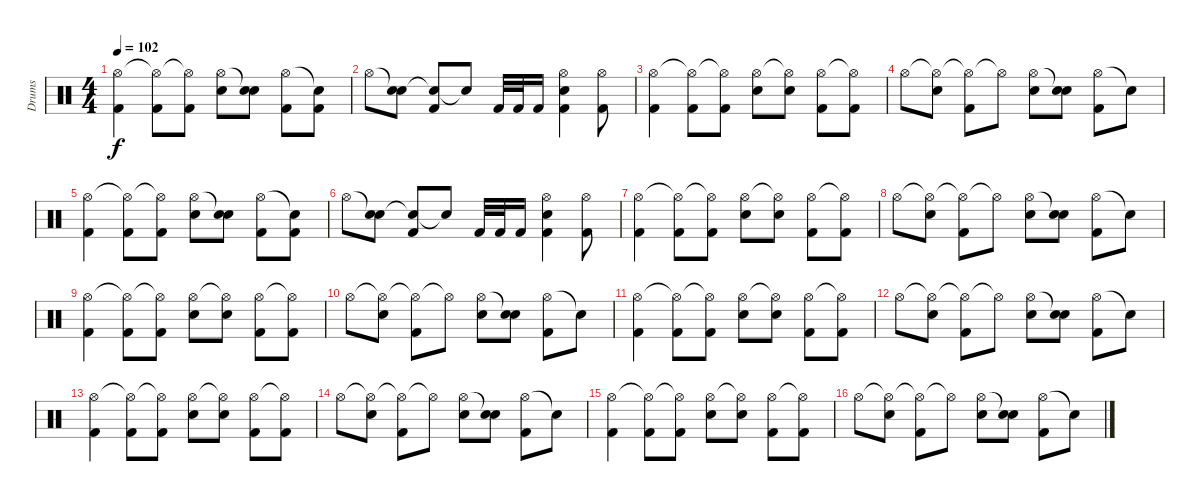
\track ("Drums" "Drums") {instrument percussion}
\staff {score}
\articulation defaults
\ts (4 4)
\tempo 102
\clef neutral
\ks c
("Hi-Hat (open)" "Kick (hit) 2").4{dy f} ("Hi-Hat (open)"{t} "Kick (hit) 2").8 ("Hi-Hat (open)"{t} "Kick (hit) 2").8 ("Hi-Hat (open)" "Snare (hit) 2").8 ("Snare (hit)"{t} "Snare (hit) 2").8 ("Hi-Hat (open)" "Kick (hit) 2").8 ("Snare (hit)"{t} "Kick (hit) 2").8 |
"Hi-Hat (open)".8 ("Snare (hit)"{t} "Snare (hit) 2").8 ("Snare (hit)"{t} "Kick (hit) 2").8 "Snare (hit)"{t}.8 "Kick (hit) 2".32 "Kick (hit) 2".32 "Kick (hit) 2".16 ("Hi-Hat (open)" "Snare (hit) 2" "Kick (hit) 2").4 ("Hi-Hat (open)" "Kick (hit) 2").8 |
("Hi-Hat (open)" "Kick (hit) 2").4 ("Hi-Hat (open)"{t} "Kick (hit) 2").8 ("Hi-Hat (open)"{t} "Kick (hit) 2").8 ("Hi-Hat (open)" "Snare (hit) 2").8 ("Hi-Hat (open)"{t} "Snare (hit) 2").8 ("Hi-Hat (open)" "Kick (hit) 2").8 ("Hi-Hat (open)"{t} "Kick (hit) 2").8 |
"Hi-Hat (open)".8 ("Hi-Hat (open)"{t} "Snare (hit) 2").8 ("Hi-Hat (open)"{t} "Kick (hit) 2").8 "Hi-Hat (open)"{t}.8 ("Hi-Hat (open)" "Snare (hit) 2").8 ("Snare (hit)"{t} "Snare (hit) 2").8 ("Hi-Hat (open)" "Kick (hit) 2").8 "Snare (hit)"{t}.8 |
("Hi-Hat (open)" "Kick (hit) 2").4 ("Hi-Hat (open)"{t} "Kick (hit) 2").8 ("Hi-Hat (open)"{t} "Kick (hit) 2").8 ("Hi-Hat (open)" "Snare (hit) 2").8 ("Snare (hit)"{t} "Snare (hit) 2").8 ("Hi-Hat (open)" "Kick (hit) 2").8 ("Snare (hit)"{t} "Kick (hit) 2").8 |
"Hi-Hat (open)".8 ("Snare (hit)"{t} "Snare (hit) 2").8 ("Snare (hit)"{t} "Kick (hit) 2").8 "Snare (hit)"{t}.8 "Kick (hit) 2".32 "Kick (hit) 2".32 "Kick (hit) 2".16 ("Hi-Hat (open)" "Snare (hit) 2" "Kick (hit) 2").4 ("Hi-Hat (open)" "Kick (hit) 2").8 |
("Hi-Hat (open)" "Kick (hit) 2").4 ("Hi-Hat (open)"{t} "Kick (hit) 2").8 ("Hi-Hat (open)"{t} "Kick (hit) 2").8 ("Hi-Hat (open)" "Snare (hit) 2").8 ("Hi-Hat (open)"{t} "Snare (hit) 2").8 ("Hi-Hat (open)" "Kick (hit) 2").8 ("Hi-Hat (open)"{t} "Kick (hit) 2").8 |
"Hi-Hat (open)".8 ("Hi-Hat (open)"{t} "Snare (hit) 2").8 ("Hi-Hat (open)"{t} "Kick (hit) 2").8 "Hi-Hat (open)"{t}.8 ("Hi-Hat (open)" "Snare (hit) 2").8 ("Snare (hit)"{t} "Snare (hit) 2").8 ("Hi-Hat (open)" "Kick (hit) 2").8 "Snare (hit)"{t}.8 |
("Hi-Hat (open)" "Kick (hit) 2").4 ("Hi-Hat (open)"{t} "Kick (hit) 2").8 ("Hi-Hat (open)"{t} "Kick (hit) 2").8 ("Hi-Hat (open)" "Snare (hit) 2").8 ("Hi-Hat (open)"{t} "Snare (hit) 2").8 ("Hi-Hat (open)" "Kick (hit) 2").8 ("Hi-Hat (open)"{t} "Kick (hit) 2").8 |
"Hi-Hat (open)".8 ("Hi-Hat (open)"{t} "Snare (hit) 2").8 ("Hi-Hat (open)"{t} "Kick (hit) 2").8 "Hi-Hat (open)"{t}.8 ("Hi-Hat (open)" "Snare (hit) 2").8 ("Snare (hit)"{t} "Snare (hit) 2").8 ("Hi-Hat (open)" "Kick (hit) 2").8 "Snare (hit)"{t}.8 |
("Hi-Hat (open)" "Kick (hit) 2").4 ("Hi-Hat (open)"{t} "Kick (hit) 2").8 ("Hi-Hat (open)"{t} "Kick (hit) 2").8 ("Hi-Hat (open)" "Snare (hit) 2").8 ("Hi-Hat (open)"{t} "Snare (hit) 2").8 ("Hi-Hat (open)" "Kick (hit) 2").8 ("Hi-Hat (open)"{t} "Kick (hit) 2").8 |
"Hi-Hat (open)".8 ("Hi-Hat (open)"{t} "Snare (hit) 2").8 ("Hi-Hat (open)"{t} "Kick (hit) 2").8 "Hi-Hat (open)"{t}.8 ("Hi-Hat (open)" "Snare (hit) 2").8 ("Snare (hit)"{t} "Snare (hit) 2").8 ("Hi-Hat (open)" "Kick (hit) 2").8 "Snare (hit)"{t}.8 |
("Hi-Hat (open)" "Kick (hit) 2").4 ("Hi-Hat (open)"{t} "Kick (hit) 2").8 ("Hi-Hat (open)"{t} "Kick (hit) 2").8 ("Hi-Hat (open)" "Snare (hit) 2").8 ("Hi-Hat (open)"{t} "Snare (hit) 2").8 ("Hi-Hat (open)" "Kick (hit) 2").8 ("Hi-Hat (open)"{t} "Kick (hit) 2").8 |
"Hi-Hat (open)".8 ("Hi-Hat (open)"{t} "Snare (hit) 2").8 ("Hi-Hat (open)"{t} "Kick (hit) 2").8 "Hi-Hat (open)"{t}.8 ("Hi-Hat (open)" "Snare (hit) 2").8 ("Snare (hit)"{t} "Snare (hit) 2").8 ("Hi-Hat (open)" "Kick (hit) 2").8 "Snare (hit)"{t}.8 |
("Hi-Hat (open)" "Kick (hit) 2").4 ("Hi-Hat (open)"{t} "Kick (hit) 2").8 ("Hi-Hat (open)"{t} "Kick (hit) 2").8 ("Hi-Hat (open)" "Snare (hit) 2").8 ("Hi-Hat (open)"{t} "Snare (hit) 2").8 ("Hi-Hat (open)" "Kick (hit) 2").8 ("Hi-Hat (open)"{t} "Kick (hit) 2").8 |
"Hi-Hat (open)".8 ("Hi-Hat (open)"{t} "Snare (hit) 2").8 ("Hi-Hat (open)"{t} "Kick (hit) 2").8 "Hi-Hat (open)"{t}.8 ("Hi-Hat (open)" "Snare (hit) 2").8 ("Snare (hit)"{t} "Snare (hit) 2").8 ("Hi-Hat (open)" "Kick (hit) 2").8 "Snare (hit)"{t}.8
